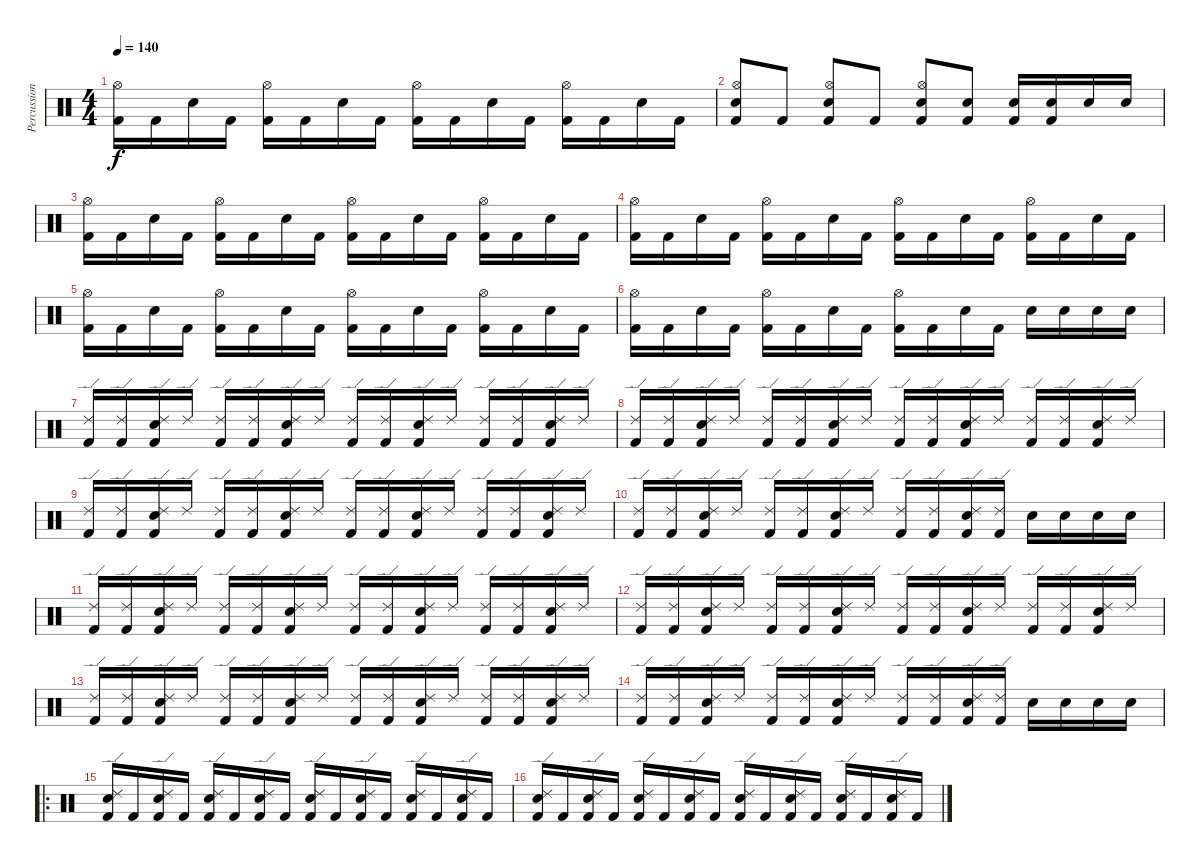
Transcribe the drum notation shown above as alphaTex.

\track ("Percussion" "Percussion") {instrument percussion}
\staff {score}
\articulation defaults
\ts (4 4)
\tempo 140
\clef neutral
\ks c
("Kick (hit) 2" "Hi-Hat (open)").16{dy f} "Kick (hit) 2".16 "Electric Snare (hit)".16 "Kick (hit) 2".16 ("Kick (hit) 2" "Hi-Hat (open)").16 "Kick (hit) 2".16 "Electric Snare (hit)".16 "Kick (hit) 2".16 ("Kick (hit) 2" "Hi-Hat (open)").16 "Kick (hit) 2".16 "Electric Snare (hit)".16 "Kick (hit) 2".16 ("Kick (hit) 2" "Hi-Hat (open)").16 "Kick (hit) 2".16 "Electric Snare (hit)".16 "Kick (hit) 2".16 |
("Kick (hit) 2" "Electric Snare (hit)" "Hi-Hat (open)").8 "Kick (hit) 2".8 ("Kick (hit) 2" "Electric Snare (hit)" "Hi-Hat (open)").8 "Kick (hit) 2".8 ("Kick (hit) 2" "Electric Snare (hit)" "Hi-Hat (open)").8 ("Kick (hit) 2" "Electric Snare (hit)").8 ("Kick (hit) 2" "Electric Snare (hit)").16 ("Kick (hit) 2" "Electric Snare (hit)").16 "Electric Snare (hit)".16 "Electric Snare (hit)".16 |
("Kick (hit) 2" "Hi-Hat (open)").16 "Kick (hit) 2".16 "Electric Snare (hit)".16 "Kick (hit) 2".16 ("Kick (hit) 2" "Hi-Hat (open)").16 "Kick (hit) 2".16 "Electric Snare (hit)".16 "Kick (hit) 2".16 ("Kick (hit) 2" "Hi-Hat (open)").16 "Kick (hit) 2".16 "Electric Snare (hit)".16 "Kick (hit) 2".16 ("Kick (hit) 2" "Hi-Hat (open)").16 "Kick (hit) 2".16 "Electric Snare (hit)".16 "Kick (hit) 2".16 |
("Kick (hit) 2" "Hi-Hat (open)").16 "Kick (hit) 2".16 "Electric Snare (hit)".16 "Kick (hit) 2".16 ("Kick (hit) 2" "Hi-Hat (open)").16 "Kick (hit) 2".16 "Electric Snare (hit)".16 "Kick (hit) 2".16 ("Kick (hit) 2" "Hi-Hat (open)").16 "Kick (hit) 2".16 "Electric Snare (hit)".16 "Kick (hit) 2".16 ("Kick (hit) 2" "Hi-Hat (open)").16 "Kick (hit) 2".16 "Electric Snare (hit)".16 "Kick (hit) 2".16 |
("Kick (hit) 2" "Hi-Hat (open)").16 "Kick (hit) 2".16 "Electric Snare (hit)".16 "Kick (hit) 2".16 ("Kick (hit) 2" "Hi-Hat (open)").16 "Kick (hit) 2".16 "Electric Snare (hit)".16 "Kick (hit) 2".16 ("Kick (hit) 2" "Hi-Hat (open)").16 "Kick (hit) 2".16 "Electric Snare (hit)".16 "Kick (hit) 2".16 ("Kick (hit) 2" "Hi-Hat (open)").16 "Kick (hit) 2".16 "Electric Snare (hit)".16 "Kick (hit) 2".16 |
("Kick (hit) 2" "Hi-Hat (open)").16 "Kick (hit) 2".16 "Electric Snare (hit)".16 "Kick (hit) 2".16 ("Kick (hit) 2" "Hi-Hat (open)").16 "Kick (hit) 2".16 "Electric Snare (hit)".16 "Kick (hit) 2".16 ("Kick (hit) 2" "Hi-Hat (open)").16 "Kick (hit) 2".16 "Electric Snare (hit)".16 "Kick (hit) 2".16 "Electric Snare (hit)".16 "Electric Snare (hit)".16 "Electric Snare (hit)".16 "Electric Snare (hit)".16 |
("Kick (hit) 2" "Ride (edge) 2").16 ("Kick (hit) 2" "Ride (edge) 2").16 ("Kick (hit) 2" "Electric Snare (hit)" "Ride (edge) 2").16 "Ride (edge) 2".16 ("Kick (hit) 2" "Ride (edge) 2").16 ("Kick (hit) 2" "Ride (edge) 2").16 ("Kick (hit) 2" "Electric Snare (hit)" "Ride (edge) 2").16 "Ride (edge) 2".16 ("Kick (hit) 2" "Ride (edge) 2").16 ("Kick (hit) 2" "Ride (edge) 2").16 ("Kick (hit) 2" "Electric Snare (hit)" "Ride (edge) 2").16 "Ride (edge) 2".16 ("Kick (hit) 2" "Ride (edge) 2").16 ("Kick (hit) 2" "Ride (edge) 2").16 ("Kick (hit) 2" "Electric Snare (hit)" "Ride (edge) 2").16 "Ride (edge) 2".16 |
("Kick (hit) 2" "Ride (edge) 2").16 ("Kick (hit) 2" "Ride (edge) 2").16 ("Kick (hit) 2" "Electric Snare (hit)" "Ride (edge) 2").16 "Ride (edge) 2".16 ("Kick (hit) 2" "Ride (edge) 2").16 ("Kick (hit) 2" "Ride (edge) 2").16 ("Kick (hit) 2" "Electric Snare (hit)" "Ride (edge) 2").16 "Ride (edge) 2".16 ("Kick (hit) 2" "Ride (edge) 2").16 ("Kick (hit) 2" "Ride (edge) 2").16 ("Kick (hit) 2" "Electric Snare (hit)" "Ride (edge) 2").16 "Ride (edge) 2".16 ("Kick (hit) 2" "Ride (edge) 2").16 ("Kick (hit) 2" "Ride (edge) 2").16 ("Kick (hit) 2" "Electric Snare (hit)" "Ride (edge) 2").16 "Ride (edge) 2".16 |
("Kick (hit) 2" "Ride (edge) 2").16 ("Kick (hit) 2" "Ride (edge) 2").16 ("Kick (hit) 2" "Electric Snare (hit)" "Ride (edge) 2").16 "Ride (edge) 2".16 ("Kick (hit) 2" "Ride (edge) 2").16 ("Kick (hit) 2" "Ride (edge) 2").16 ("Kick (hit) 2" "Electric Snare (hit)" "Ride (edge) 2").16 "Ride (edge) 2".16 ("Kick (hit) 2" "Ride (edge) 2").16 ("Kick (hit) 2" "Ride (edge) 2").16 ("Kick (hit) 2" "Electric Snare (hit)" "Ride (edge) 2").16 "Ride (edge) 2".16 ("Kick (hit) 2" "Ride (edge) 2").16 ("Kick (hit) 2" "Ride (edge) 2").16 ("Kick (hit) 2" "Electric Snare (hit)" "Ride (edge) 2").16 "Ride (edge) 2".16 |
("Kick (hit) 2" "Ride (edge) 2").16 ("Kick (hit) 2" "Ride (edge) 2").16 ("Kick (hit) 2" "Electric Snare (hit)" "Ride (edge) 2").16 "Ride (edge) 2".16 ("Kick (hit) 2" "Ride (edge) 2").16 ("Kick (hit) 2" "Ride (edge) 2").16 ("Kick (hit) 2" "Electric Snare (hit)" "Ride (edge) 2").16 "Ride (edge) 2".16 ("Kick (hit) 2" "Ride (edge) 2").16 ("Kick (hit) 2" "Ride (edge) 2").16 ("Kick (hit) 2" "Electric Snare (hit)" "Ride (edge) 2").16 ("Kick (hit) 2" "Ride (edge) 2").16 "Electric Snare (hit)".16 "Electric Snare (hit)".16 "Electric Snare (hit)".16 "Electric Snare (hit)".16 |
("Kick (hit) 2" "Ride (edge) 2").16 ("Kick (hit) 2" "Ride (edge) 2").16 ("Kick (hit) 2" "Electric Snare (hit)" "Ride (edge) 2").16 "Ride (edge) 2".16 ("Kick (hit) 2" "Ride (edge) 2").16 ("Kick (hit) 2" "Ride (edge) 2").16 ("Kick (hit) 2" "Electric Snare (hit)" "Ride (edge) 2").16 "Ride (edge) 2".16 ("Kick (hit) 2" "Ride (edge) 2").16 ("Kick (hit) 2" "Ride (edge) 2").16 ("Kick (hit) 2" "Electric Snare (hit)" "Ride (edge) 2").16 "Ride (edge) 2".16 ("Kick (hit) 2" "Ride (edge) 2").16 ("Kick (hit) 2" "Ride (edge) 2").16 ("Kick (hit) 2" "Electric Snare (hit)" "Ride (edge) 2").16 "Ride (edge) 2".16 |
("Kick (hit) 2" "Ride (edge) 2").16 ("Kick (hit) 2" "Ride (edge) 2").16 ("Kick (hit) 2" "Electric Snare (hit)" "Ride (edge) 2").16 "Ride (edge) 2".16 ("Kick (hit) 2" "Ride (edge) 2").16 ("Kick (hit) 2" "Ride (edge) 2").16 ("Kick (hit) 2" "Electric Snare (hit)" "Ride (edge) 2").16 "Ride (edge) 2".16 ("Kick (hit) 2" "Ride (edge) 2").16 ("Kick (hit) 2" "Ride (edge) 2").16 ("Kick (hit) 2" "Electric Snare (hit)" "Ride (edge) 2").16 "Ride (edge) 2".16 ("Kick (hit) 2" "Ride (edge) 2").16 ("Kick (hit) 2" "Ride (edge) 2").16 ("Kick (hit) 2" "Electric Snare (hit)" "Ride (edge) 2").16 "Ride (edge) 2".16 |
("Kick (hit) 2" "Ride (edge) 2").16 ("Kick (hit) 2" "Ride (edge) 2").16 ("Kick (hit) 2" "Electric Snare (hit)" "Ride (edge) 2").16 "Ride (edge) 2".16 ("Kick (hit) 2" "Ride (edge) 2").16 ("Kick (hit) 2" "Ride (edge) 2").16 ("Kick (hit) 2" "Electric Snare (hit)" "Ride (edge) 2").16 "Ride (edge) 2".16 ("Kick (hit) 2" "Ride (edge) 2").16 ("Kick (hit) 2" "Ride (edge) 2").16 ("Kick (hit) 2" "Electric Snare (hit)" "Ride (edge) 2").16 "Ride (edge) 2".16 ("Kick (hit) 2" "Ride (edge) 2").16 ("Kick (hit) 2" "Ride (edge) 2").16 ("Kick (hit) 2" "Electric Snare (hit)" "Ride (edge) 2").16 "Ride (edge) 2".16 |
("Kick (hit) 2" "Ride (edge) 2").16 ("Kick (hit) 2" "Ride (edge) 2").16 ("Kick (hit) 2" "Electric Snare (hit)" "Ride (edge) 2").16 "Ride (edge) 2".16 ("Kick (hit) 2" "Ride (edge) 2").16 ("Kick (hit) 2" "Ride (edge) 2").16 ("Kick (hit) 2" "Electric Snare (hit)" "Ride (edge) 2").16 "Ride (edge) 2".16 ("Kick (hit) 2" "Ride (edge) 2").16 ("Kick (hit) 2" "Ride (edge) 2").16 ("Kick (hit) 2" "Electric Snare (hit)" "Ride (edge) 2").16 ("Kick (hit) 2" "Ride (edge) 2").16 "Electric Snare (hit)".16 "Electric Snare (hit)".16 "Electric Snare (hit)".16 "Electric Snare (hit)".16 |
\ro
("Kick (hit) 2" "Electric Snare (hit)" "Ride (edge) 2").16 "Kick (hit) 2".16 ("Kick (hit) 2" "Electric Snare (hit)" "Ride (edge) 2").16 "Kick (hit) 2".16 ("Kick (hit) 2" "Electric Snare (hit)" "Ride (edge) 2").16 "Kick (hit) 2".16 ("Kick (hit) 2" "Electric Snare (hit)" "Ride (edge) 2").16 "Kick (hit) 2".16 ("Kick (hit) 2" "Electric Snare (hit)" "Ride (edge) 2").16 "Kick (hit) 2".16 ("Kick (hit) 2" "Electric Snare (hit)" "Ride (edge) 2").16 "Kick (hit) 2".16 ("Kick (hit) 2" "Electric Snare (hit)" "Ride (edge) 2").16 "Kick (hit) 2".16 ("Kick (hit) 2" "Electric Snare (hit)" "Ride (edge) 2").16 "Kick (hit) 2".16 |
("Kick (hit) 2" "Electric Snare (hit)" "Ride (edge) 2").16 "Kick (hit) 2".16 ("Kick (hit) 2" "Electric Snare (hit)" "Ride (edge) 2").16 "Kick (hit) 2".16 ("Kick (hit) 2" "Electric Snare (hit)" "Ride (edge) 2").16 "Kick (hit) 2".16 ("Kick (hit) 2" "Electric Snare (hit)" "Ride (edge) 2").16 "Kick (hit) 2".16 ("Kick (hit) 2" "Electric Snare (hit)" "Ride (edge) 2").16 "Kick (hit) 2".16 ("Kick (hit) 2" "Electric Snare (hit)" "Ride (edge) 2").16 "Kick (hit) 2".16 ("Kick (hit) 2" "Electric Snare (hit)" "Ride (edge) 2").16 "Kick (hit) 2".16 ("Kick (hit) 2" "Electric Snare (hit)" "Ride (edge) 2").16 "Kick (hit) 2".16
